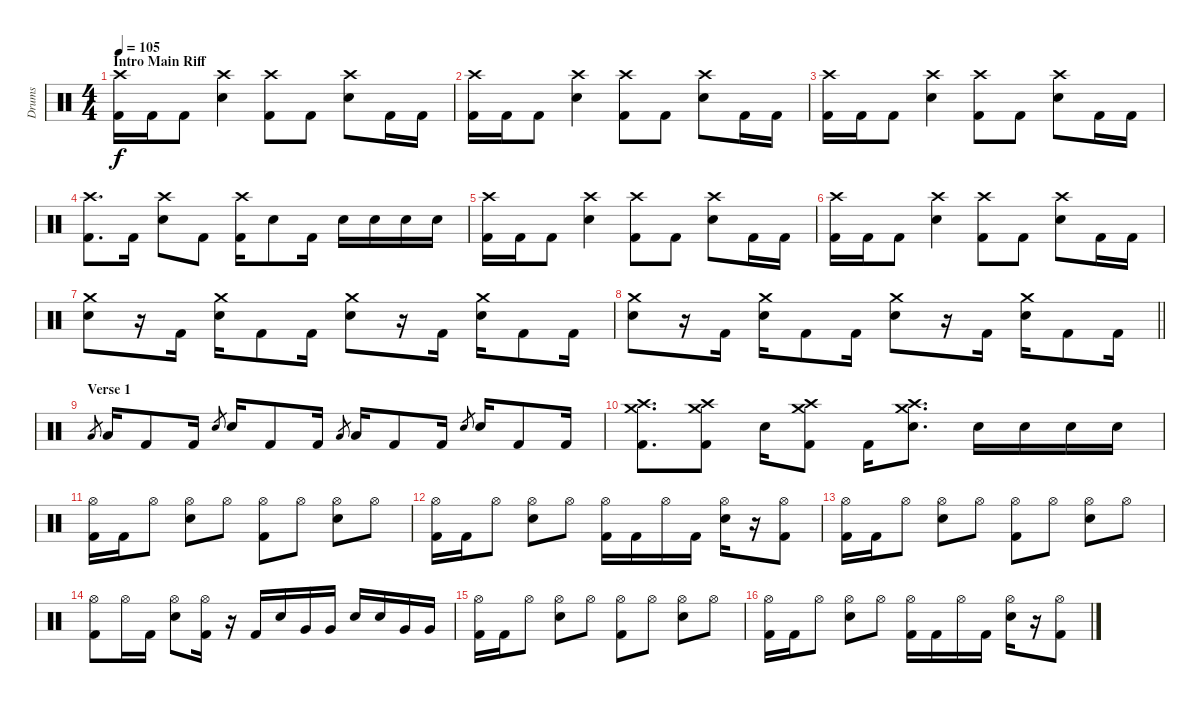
\track ("Drums" "Drums") {instrument percussion}
\staff {score}
\articulation defaults
\ts (4 4)
\section ("" "Intro Main Riff")
\tempo 105
\clef neutral
\ks c
("Crash high (hit)" "Kick (hit) 2").16{dy f} "Kick (hit) 2".16 "Kick (hit) 2".8 ("Crash high (hit)" "Snare (hit) 2").4 ("Crash high (hit)" "Kick (hit) 2").8 "Kick (hit) 2".8 ("Crash high (hit)" "Snare (hit) 2").8 "Kick (hit) 2".16 "Kick (hit) 2".16 |
("Crash high (hit)" "Kick (hit) 2").16 "Kick (hit) 2".16 "Kick (hit) 2".8 ("Crash high (hit)" "Snare (hit) 2").4 ("Crash high (hit)" "Kick (hit) 2").8 "Kick (hit) 2".8 ("Crash high (hit)" "Snare (hit) 2").8 "Kick (hit) 2".16 "Kick (hit) 2".16 |
("Crash high (hit)" "Kick (hit) 2").16 "Kick (hit) 2".16 "Kick (hit) 2".8 ("Crash high (hit)" "Snare (hit) 2").4 ("Crash high (hit)" "Kick (hit) 2").8 "Kick (hit) 2".8 ("Crash high (hit)" "Snare (hit) 2").8 "Kick (hit) 2".16 "Kick (hit) 2".16 |
("Crash high (hit)" "Kick (hit) 2").8{d} "Kick (hit) 2".16 ("Crash high (hit)" "Snare (hit) 2").8 "Kick (hit) 2".8 ("Crash high (hit)" "Kick (hit) 2").16 "Snare (hit) 2".8 "Kick (hit) 2".16 "Snare (hit) 2".16 "Snare (hit) 2".16 "Snare (hit) 2".16 "Snare (hit) 2".16 |
("Crash high (hit)" "Kick (hit) 2").16 "Kick (hit) 2".16 "Kick (hit) 2".8 ("Crash high (hit)" "Snare (hit) 2").4 ("Crash high (hit)" "Kick (hit) 2").8 "Kick (hit) 2".8 ("Crash high (hit)" "Snare (hit) 2").8 "Kick (hit) 2".16 "Kick (hit) 2".16 |
("Crash high (hit)" "Kick (hit) 2").16 "Kick (hit) 2".16 "Kick (hit) 2".8 ("Crash high (hit)" "Snare (hit) 2").4 ("Crash high (hit)" "Kick (hit) 2").8 "Kick (hit) 2".8 ("Crash high (hit)" "Snare (hit) 2").8 "Kick (hit) 2".16 "Kick (hit) 2".16 |
("Crash medium (hit)" "Snare (hit) 2").8 r.16 "Kick (hit) 2".16 ("Crash medium (hit)" "Snare (hit) 2").16 "Kick (hit) 2".8 "Kick (hit) 2".16 ("Crash medium (hit)" "Snare (hit) 2").8 r.16 "Kick (hit) 2".16 ("Crash medium (hit)" "Snare (hit) 2").16 "Kick (hit) 2".8 "Kick (hit) 2".16 |
\barLineRight lightlight
("Crash medium (hit)" "Snare (hit) 2").8 r.16 "Kick (hit) 2".16 ("Crash medium (hit)" "Snare (hit) 2").16 "Kick (hit) 2".8 "Kick (hit) 2".16 ("Crash medium (hit)" "Snare (hit) 2").8 r.16 "Kick (hit) 2".16 ("Crash medium (hit)" "Snare (hit) 2").16 "Kick (hit) 2".8 "Kick (hit) 2".16 |
\section ("" "Verse 1")
"Low Tom (hit)".8{gr} "Low Tom (hit)".16 "Kick (hit) 2".8 "Kick (hit) 2".16 "Snare (hit) 2".8{gr} "Snare (hit) 2".16 "Kick (hit) 2".8 "Kick (hit) 2".16 "Low Tom (hit)".8{gr} "Low Tom (hit)".16 "Kick (hit) 2".8 "Kick (hit) 2".16 "Snare (hit) 2".8{gr} "Snare (hit) 2".16 "Kick (hit) 2".8 "Kick (hit) 2".16 |
("Crash high (hit)" "Crash medium (hit)" "Kick (hit) 2").8{d} ("Crash high (hit)" "Crash medium (hit)" "Kick (hit) 2").8 "Snare (hit) 2".16 ("Crash high (hit)" "Crash medium (hit)" "Kick (hit) 2").8 "Kick (hit) 2".16 ("Crash high (hit)" "Crash medium (hit)" "Snare (hit) 2").8{d} "Snare (hit) 2".16 "Snare (hit) 2".16 "Snare (hit) 2".16 "Snare (hit) 2".16 |
("Hi-Hat (open)" "Kick (hit) 2").16 "Kick (hit) 2".16 "Hi-Hat (open)".8 ("Hi-Hat (open)" "Snare (hit) 2").8 "Hi-Hat (open)".8 ("Hi-Hat (open)" "Kick (hit) 2").8 "Hi-Hat (open)".8 ("Hi-Hat (open)" "Snare (hit) 2").8 "Hi-Hat (open)".8 |
("Hi-Hat (open)" "Kick (hit) 2").16 "Kick (hit) 2".16 "Hi-Hat (open)".8 ("Hi-Hat (open)" "Snare (hit) 2").8 "Hi-Hat (open)".8 ("Hi-Hat (open)" "Kick (hit) 2").16 "Kick (hit) 2".16 "Hi-Hat (open)".16 "Kick (hit) 2".16 ("Hi-Hat (open)" "Snare (hit) 2").16 r.16 ("Hi-Hat (open)" "Kick (hit) 2").8 |
("Hi-Hat (open)" "Kick (hit) 2").16 "Kick (hit) 2".16 "Hi-Hat (open)".8 ("Hi-Hat (open)" "Snare (hit) 2").8 "Hi-Hat (open)".8 ("Hi-Hat (open)" "Kick (hit) 2").8 "Hi-Hat (open)".8 ("Hi-Hat (open)" "Snare (hit) 2").8 "Hi-Hat (open)".8 |
("Hi-Hat (open)" "Kick (hit) 2").8 "Hi-Hat (open)".16 "Kick (hit) 2".16 ("Hi-Hat (open)" "Snare (hit) 2").8 ("Hi-Hat (open)" "Kick (hit) 2").16 r.16 "Kick (hit) 2".16 "Snare (hit) 2".16 "Very Low Tom (hit)".16 "Very Low Tom (hit)".16 "Snare (hit) 2".16 "Snare (hit) 2".16 "Very Low Tom (hit)".16 "Very Low Tom (hit)".16 |
("Hi-Hat (open)" "Kick (hit) 2").16 "Kick (hit) 2".16 "Hi-Hat (open)".8 ("Hi-Hat (open)" "Snare (hit) 2").8 "Hi-Hat (open)".8 ("Hi-Hat (open)" "Kick (hit) 2").8 "Hi-Hat (open)".8 ("Hi-Hat (open)" "Snare (hit) 2").8 "Hi-Hat (open)".8 |
("Hi-Hat (open)" "Kick (hit) 2").16 "Kick (hit) 2".16 "Hi-Hat (open)".8 ("Hi-Hat (open)" "Snare (hit) 2").8 "Hi-Hat (open)".8 ("Hi-Hat (open)" "Kick (hit) 2").16 "Kick (hit) 2".16 "Hi-Hat (open)".16 "Kick (hit) 2".16 ("Hi-Hat (open)" "Snare (hit) 2").16 r.16 ("Hi-Hat (open)" "Kick (hit) 2").8
